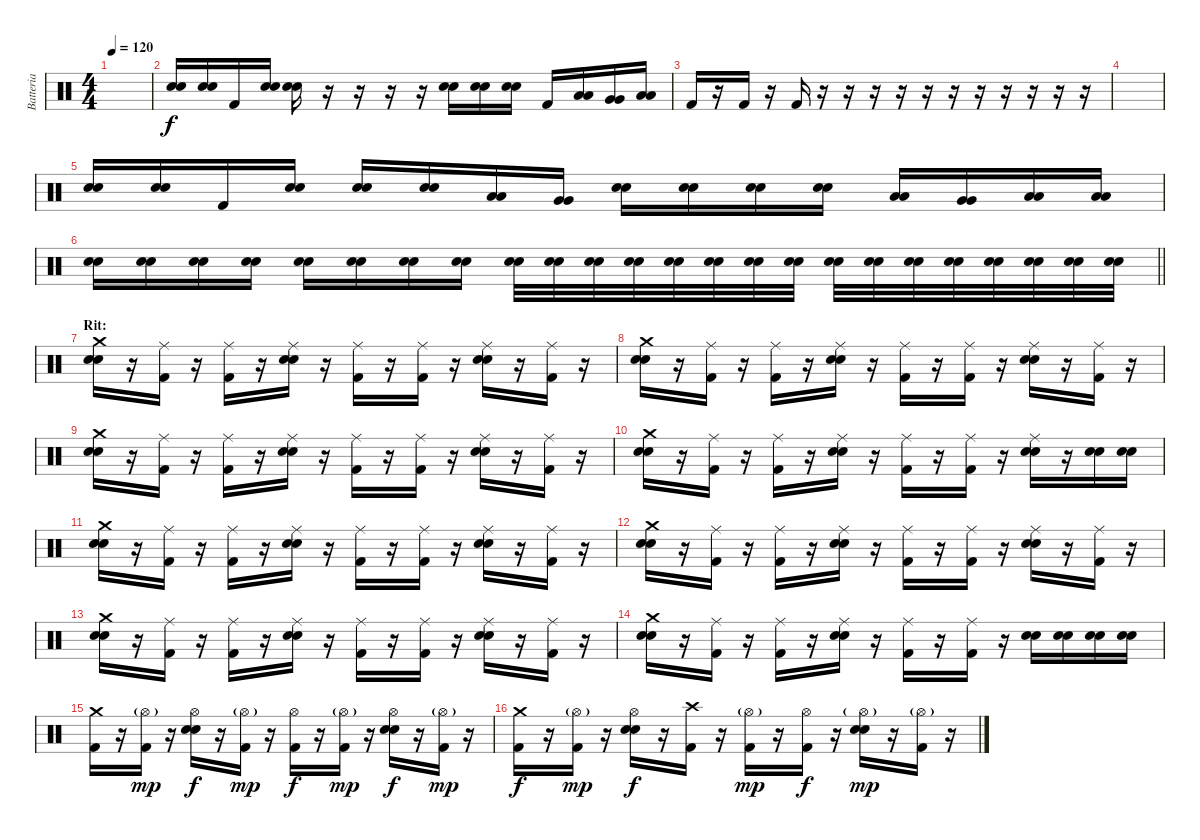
\track ("Batteria" "Batteria") {instrument percussion}
\staff {score}
\articulation defaults
\ts (4 4)
\tempo 120
\clef neutral
\ks c
|
("Snare (hit) 2" "Snare (hit) 2").16 ("Snare (hit) 2" "Snare (hit) 2").16 "Kick (hit) 2".16 ("Snare (hit) 2" "Snare (hit) 2").16 ("Snare (hit) 2" "Snare (hit) 2").16 r.16 r.16 r.16 r.16 ("Snare (hit) 2" "Snare (hit) 2").16 ("Snare (hit) 2" "Snare (hit) 2").16 ("Snare (hit) 2" "Snare (hit) 2").16 "Kick (hit) 2".16 ("Low Tom (hit)" "Low Tom (hit)").16 ("Very Low Tom (hit)" "Very Low Tom (hit)").16 ("Low Floor Tom (hit)" "Low Floor Tom (hit)").16 |
"Kick (hit) 2".16 r.16 "Kick (hit) 2".16 r.16 "Kick (hit) 2".16 r.16 r.16 r.16 r.16 r.16 r.16 r.16 r.16 r.16 r.16 r.16 |
|
("Snare (hit) 2" "Snare (hit) 2").16 ("Snare (hit) 2" "Snare (hit) 2").16 "Kick (hit) 2".16 ("Snare (hit) 2" "Snare (hit) 2").16 ("Snare (hit) 2" "Snare (hit) 2").16 ("Snare (hit) 2" "Snare (hit) 2").16 ("Low Tom (hit)" "Low Tom (hit)").16 ("Very Low Tom (hit)" "Very Low Tom (hit)").16 ("Snare (hit) 2" "Snare (hit) 2").16 ("Snare (hit) 2" "Snare (hit) 2").16 ("Snare (hit) 2" "Snare (hit) 2").16 ("Snare (hit) 2" "Snare (hit) 2").16 ("Low Tom (hit)" "Low Tom (hit)").16 ("Very Low Tom (hit)" "Very Low Tom (hit)").16 ("Low Floor Tom (hit)" "Low Floor Tom (hit)").16 ("Low Floor Tom (hit)" "Low Floor Tom (hit)").16 |
\barLineRight lightlight
("Snare (hit) 2" "Snare (hit) 2").16 ("Snare (hit) 2" "Snare (hit) 2").16 ("Snare (hit) 2" "Snare (hit) 2").16 ("Snare (hit) 2" "Snare (hit) 2").16 ("Snare (hit) 2" "Snare (hit) 2").16 ("Snare (hit) 2" "Snare (hit) 2").16 ("Snare (hit) 2" "Snare (hit) 2").16 ("Snare (hit) 2" "Snare (hit) 2").16 ("Snare (hit) 2" "Snare (hit) 2").32 ("Snare (hit) 2" "Snare (hit) 2").32 ("Snare (hit) 2" "Snare (hit) 2").32 ("Snare (hit) 2" "Snare (hit) 2").32 ("Snare (hit) 2" "Snare (hit) 2").32 ("Snare (hit) 2" "Snare (hit) 2").32 ("Snare (hit) 2" "Snare (hit) 2").32 ("Snare (hit) 2" "Snare (hit) 2").32 ("Snare (hit) 2" "Snare (hit) 2").32 ("Snare (hit) 2" "Snare (hit) 2").32 ("Snare (hit) 2" "Snare (hit) 2").32 ("Snare (hit) 2" "Snare (hit) 2").32 ("Snare (hit) 2" "Snare (hit) 2").32 ("Snare (hit) 2" "Snare (hit) 2").32 ("Snare (hit) 2" "Snare (hit) 2").32 ("Snare (hit) 2" "Snare (hit) 2").32 |
\section ("" "Rit:")
("Snare (hit) 2" "Snare (hit) 2" "Crash medium (hit)").16 r.16 ("Kick (hit) 2" "Ride (middle)").16 r.16 ("Kick (hit) 2" "Ride (middle)").16 r.16 ("Snare (hit) 2" "Snare (hit) 2" "Ride (middle)").16 r.16 ("Kick (hit) 2" "Ride (middle)").16 r.16 ("Kick (hit) 2" "Ride (middle)").16 r.16 ("Snare (hit) 2" "Snare (hit) 2" "Ride (middle)").16 r.16 ("Kick (hit) 2" "Ride (middle)").16 r.16 |
("Snare (hit) 2" "Snare (hit) 2" "Crash medium (hit)").16 r.16 ("Kick (hit) 2" "Ride (middle)").16 r.16 ("Kick (hit) 2" "Ride (middle)").16 r.16 ("Snare (hit) 2" "Snare (hit) 2" "Ride (middle)").16 r.16 ("Kick (hit) 2" "Ride (middle)").16 r.16 ("Kick (hit) 2" "Ride (middle)").16 r.16 ("Snare (hit) 2" "Snare (hit) 2" "Ride (middle)").16 r.16 ("Kick (hit) 2" "Ride (middle)").16 r.16 |
("Snare (hit) 2" "Snare (hit) 2" "Crash medium (hit)").16 r.16 ("Kick (hit) 2" "Ride (middle)").16 r.16 ("Kick (hit) 2" "Ride (middle)").16 r.16 ("Snare (hit) 2" "Snare (hit) 2" "Ride (middle)").16 r.16 ("Kick (hit) 2" "Ride (middle)").16 r.16 ("Kick (hit) 2" "Ride (middle)").16 r.16 ("Snare (hit) 2" "Snare (hit) 2" "Ride (middle)").16 r.16 ("Kick (hit) 2" "Ride (middle)").16 r.16 |
("Snare (hit) 2" "Snare (hit) 2" "Crash medium (hit)").16 r.16 ("Kick (hit) 2" "Ride (middle)").16 r.16 ("Kick (hit) 2" "Ride (middle)").16 r.16 ("Snare (hit) 2" "Snare (hit) 2" "Ride (middle)").16 r.16 ("Kick (hit) 2" "Ride (middle)").16 r.16 ("Kick (hit) 2" "Ride (middle)").16 r.16 ("Snare (hit) 2" "Snare (hit) 2" "Ride (middle)").16 r.16 ("Snare (hit) 2" "Snare (hit) 2").16 ("Snare (hit) 2" "Snare (hit) 2").16 |
("Snare (hit) 2" "Snare (hit) 2" "Crash medium (hit)").16 r.16 ("Kick (hit) 2" "Ride (middle)").16 r.16 ("Kick (hit) 2" "Ride (middle)").16 r.16 ("Snare (hit) 2" "Snare (hit) 2" "Ride (middle)").16 r.16 ("Kick (hit) 2" "Ride (middle)").16 r.16 ("Kick (hit) 2" "Ride (middle)").16 r.16 ("Snare (hit) 2" "Snare (hit) 2" "Ride (middle)").16 r.16 ("Kick (hit) 2" "Ride (middle)").16 r.16 |
("Snare (hit) 2" "Snare (hit) 2" "Crash medium (hit)").16 r.16 ("Kick (hit) 2" "Ride (middle)").16 r.16 ("Kick (hit) 2" "Ride (middle)").16 r.16 ("Snare (hit) 2" "Snare (hit) 2" "Ride (middle)").16 r.16 ("Kick (hit) 2" "Ride (middle)").16 r.16 ("Kick (hit) 2" "Ride (middle)").16 r.16 ("Snare (hit) 2" "Snare (hit) 2" "Ride (middle)").16 r.16 ("Kick (hit) 2" "Ride (middle)").16 r.16 |
("Snare (hit) 2" "Snare (hit) 2" "Crash medium (hit)").16 r.16 ("Kick (hit) 2" "Ride (middle)").16 r.16 ("Kick (hit) 2" "Ride (middle)").16 r.16 ("Snare (hit) 2" "Snare (hit) 2" "Ride (middle)").16 r.16 ("Kick (hit) 2" "Ride (middle)").16 r.16 ("Kick (hit) 2" "Ride (middle)").16 r.16 ("Snare (hit) 2" "Snare (hit) 2" "Ride (middle)").16 r.16 ("Kick (hit) 2" "Ride (middle)").16 r.16 |
("Snare (hit) 2" "Snare (hit) 2" "Crash medium (hit)").16 r.16 ("Kick (hit) 2" "Ride (middle)").16 r.16 ("Kick (hit) 2" "Ride (middle)").16 r.16 ("Snare (hit) 2" "Snare (hit) 2" "Ride (middle)").16 r.16 ("Kick (hit) 2" "Ride (middle)").16 r.16 ("Kick (hit) 2" "Ride (middle)").16 r.16 ("Snare (hit) 2" "Snare (hit) 2").16 ("Snare (hit) 2" "Snare (hit) 2").16 ("Snare (hit) 2" "Snare (hit) 2").16 ("Snare (hit) 2" "Snare (hit) 2").16 |
("Kick (hit) 2" "Crash medium (hit)").16 r.16 ("Kick (hit) 2" "Hi-Hat (open)"{g}).16{dy mp} r.16 ("Snare (hit) 2" "Snare (hit) 2" "Hi-Hat (open)").16{dy f} r.16 ("Kick (hit) 2" "Hi-Hat (open)"{g}).16{dy mp} r.16 ("Kick (hit) 2" "Hi-Hat (open)").16{dy f} r.16 ("Kick (hit) 2" "Hi-Hat (open)"{g}).16{dy mp} r.16 ("Snare (hit) 2" "Snare (hit) 2" "Hi-Hat (open)").16{dy f} r.16 ("Kick (hit) 2" "Hi-Hat (open)"{g}).16{dy mp} r.16 |
("Kick (hit) 2" "Crash medium (hit)").16{dy f} r.16 ("Kick (hit) 2" "Hi-Hat (open)"{g}).16{dy mp} r.16 ("Snare (hit) 2" "Snare (hit) 2" "Hi-Hat (open)").16{dy f} r.16 ("Kick (hit) 2" "Crash high (hit)").16 r.16 ("Kick (hit) 2" "Hi-Hat (open)"{g}).16{dy mp} r.16 ("Kick (hit) 2" "Hi-Hat (open)").16{dy f} r.16 ("Snare (hit) 2" "Snare (hit) 2" "Hi-Hat (open)"{g}).16{dy mp} r.16 ("Kick (hit) 2" "Hi-Hat (open)"{g}).16 r.16
